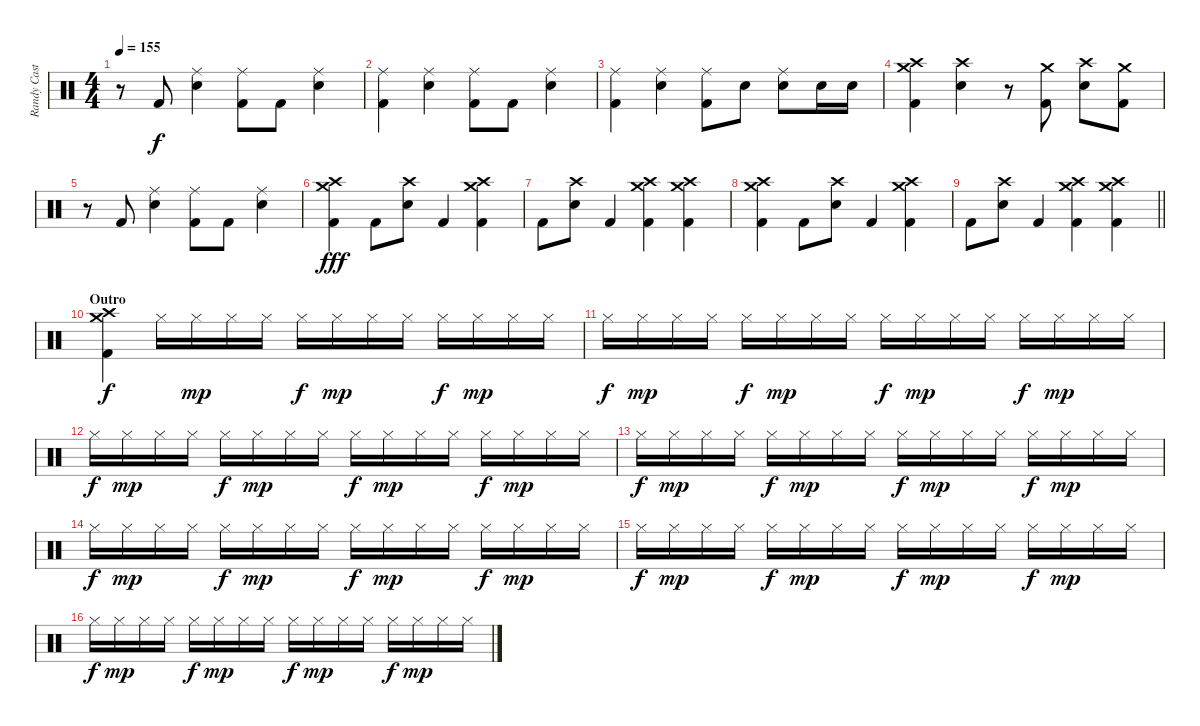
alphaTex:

\track ("Randy Castillo - Drums" "Randy Cast") {instrument percussion}
\staff {score}
\articulation defaults
\ts (4 4)
\tempo 155
\clef neutral
\ks c
r.8{dy f} "Kick (hit) 2".8 ("Ride (middle)" "Snare (hit) 2").4 ("Ride (middle)" "Kick (hit) 2").8 "Kick (hit) 2".8 ("Ride (middle)" "Snare (hit) 2").4 |
("Ride (middle)" "Kick (hit) 2").4 ("Ride (middle)" "Snare (hit) 2").4 ("Ride (middle)" "Kick (hit) 2").8 "Kick (hit) 2".8 ("Ride (middle)" "Snare (hit) 2").4 |
("Ride (middle)" "Kick (hit) 2").4 ("Ride (middle)" "Snare (hit) 2").4 ("Ride (middle)" "Kick (hit) 2").8 "Snare (hit) 2".8 ("Ride (middle)" "Snare (hit) 2").8 "Snare (hit) 2".16 "Snare (hit) 2".16 |
("Crash medium (hit)" "Crash high (hit)" "Kick (hit) 2").4 ("Crash high (hit)" "Snare (hit) 2").4 r.8 ("Crash medium (hit)" "Kick (hit) 2").8 ("Crash high (hit)" "Snare (hit) 2").8 ("Crash medium (hit)" "Kick (hit) 2").8 |
r.8 "Kick (hit) 2".8 ("Ride (middle)" "Snare (hit) 2").4 ("Ride (middle)" "Kick (hit) 2").8 "Kick (hit) 2".8 ("Ride (middle)" "Snare (hit) 2").4 |
("Crash medium (hit)" "Crash high (hit)" "Kick (hit) 2").4{dy fff} "Kick (hit) 2".8 ("Crash high (hit)" "Snare (hit) 2").8 "Kick (hit) 2".4 ("Crash medium (hit)" "Crash high (hit)" "Kick (hit) 2").4 |
"Kick (hit) 2".8 ("Crash high (hit)" "Snare (hit) 2").8 "Kick (hit) 2".4 ("Crash medium (hit)" "Crash high (hit)" "Kick (hit) 2").4 ("Crash high (hit)" "Crash medium (hit)" "Kick (hit) 2").4 |
("Crash medium (hit)" "Crash high (hit)" "Kick (hit) 2").4 "Kick (hit) 2".8 ("Crash high (hit)" "Snare (hit) 2").8 "Kick (hit) 2".4 ("Crash medium (hit)" "Crash high (hit)" "Kick (hit) 2").4 |
\barLineRight lightlight "Kick (hit) 2".8
("Crash high (hit)" "Snare (hit) 2").8 "Kick (hit) 2".4 ("Crash medium (hit)" "Crash high (hit)" "Kick (hit) 2").4 ("Crash high (hit)" "Crash medium (hit)" "Kick (hit) 2").4 |
\section ("" "Outro")
("Crash medium (hit)" "Crash high (hit)" "Kick (hit) 2").4{dy f} "Hi-Hat (closed)".16 "Hi-Hat (closed)".16{dy mp} "Hi-Hat (closed)".16 "Hi-Hat (closed)".16 "Hi-Hat (closed)".16{dy f} "Hi-Hat (closed)".16{dy mp} "Hi-Hat (closed)".16 "Hi-Hat (closed)".16 "Hi-Hat (closed)".16{dy f} "Hi-Hat (closed)".16{dy mp} "Hi-Hat (closed)".16 "Hi-Hat (closed)".16 |
"Hi-Hat (closed)".16{dy f} "Hi-Hat (closed)".16{dy mp} "Hi-Hat (closed)".16 "Hi-Hat (closed)".16 "Hi-Hat (closed)".16{dy f} "Hi-Hat (closed)".16{dy mp} "Hi-Hat (closed)".16 "Hi-Hat (closed)".16 "Hi-Hat (closed)".16{dy f} "Hi-Hat (closed)".16{dy mp} "Hi-Hat (closed)".16 "Hi-Hat (closed)".16 "Hi-Hat (closed)".16{dy f} "Hi-Hat (closed)".16{dy mp} "Hi-Hat (closed)".16 "Hi-Hat (closed)".16 |
"Hi-Hat (closed)".16{dy f} "Hi-Hat (closed)".16{dy mp} "Hi-Hat (closed)".16 "Hi-Hat (closed)".16 "Hi-Hat (closed)".16{dy f} "Hi-Hat (closed)".16{dy mp} "Hi-Hat (closed)".16 "Hi-Hat (closed)".16 "Hi-Hat (closed)".16{dy f} "Hi-Hat (closed)".16{dy mp} "Hi-Hat (closed)".16 "Hi-Hat (closed)".16 "Hi-Hat (closed)".16{dy f} "Hi-Hat (closed)".16{dy mp} "Hi-Hat (closed)".16 "Hi-Hat (closed)".16 |
"Hi-Hat (closed)".16{dy f} "Hi-Hat (closed)".16{dy mp} "Hi-Hat (closed)".16 "Hi-Hat (closed)".16 "Hi-Hat (closed)".16{dy f} "Hi-Hat (closed)".16{dy mp} "Hi-Hat (closed)".16 "Hi-Hat (closed)".16 "Hi-Hat (closed)".16{dy f} "Hi-Hat (closed)".16{dy mp} "Hi-Hat (closed)".16 "Hi-Hat (closed)".16 "Hi-Hat (closed)".16{dy f} "Hi-Hat (closed)".16{dy mp} "Hi-Hat (closed)".16 "Hi-Hat (closed)".16 |
"Hi-Hat (closed)".16{dy f} "Hi-Hat (closed)".16{dy mp} "Hi-Hat (closed)".16 "Hi-Hat (closed)".16 "Hi-Hat (closed)".16{dy f} "Hi-Hat (closed)".16{dy mp} "Hi-Hat (closed)".16 "Hi-Hat (closed)".16 "Hi-Hat (closed)".16{dy f} "Hi-Hat (closed)".16{dy mp} "Hi-Hat (closed)".16 "Hi-Hat (closed)".16 "Hi-Hat (closed)".16{dy f} "Hi-Hat (closed)".16{dy mp} "Hi-Hat (closed)".16 "Hi-Hat (closed)".16 |
"Hi-Hat (closed)".16{dy f} "Hi-Hat (closed)".16{dy mp} "Hi-Hat (closed)".16 "Hi-Hat (closed)".16 "Hi-Hat (closed)".16{dy f} "Hi-Hat (closed)".16{dy mp} "Hi-Hat (closed)".16 "Hi-Hat (closed)".16 "Hi-Hat (closed)".16{dy f} "Hi-Hat (closed)".16{dy mp} "Hi-Hat (closed)".16 "Hi-Hat (closed)".16 "Hi-Hat (closed)".16{dy f} "Hi-Hat (closed)".16{dy mp} "Hi-Hat (closed)".16 "Hi-Hat (closed)".16 |
"Hi-Hat (closed)".16{dy f} "Hi-Hat (closed)".16{dy mp} "Hi-Hat (closed)".16 "Hi-Hat (closed)".16 "Hi-Hat (closed)".16{dy f} "Hi-Hat (closed)".16{dy mp} "Hi-Hat (closed)".16 "Hi-Hat (closed)".16 "Hi-Hat (closed)".16{dy f} "Hi-Hat (closed)".16{dy mp} "Hi-Hat (closed)".16 "Hi-Hat (closed)".16 "Hi-Hat (closed)".16{dy f} "Hi-Hat (closed)".16{dy mp} "Hi-Hat (closed)".16 "Hi-Hat (closed)".16
